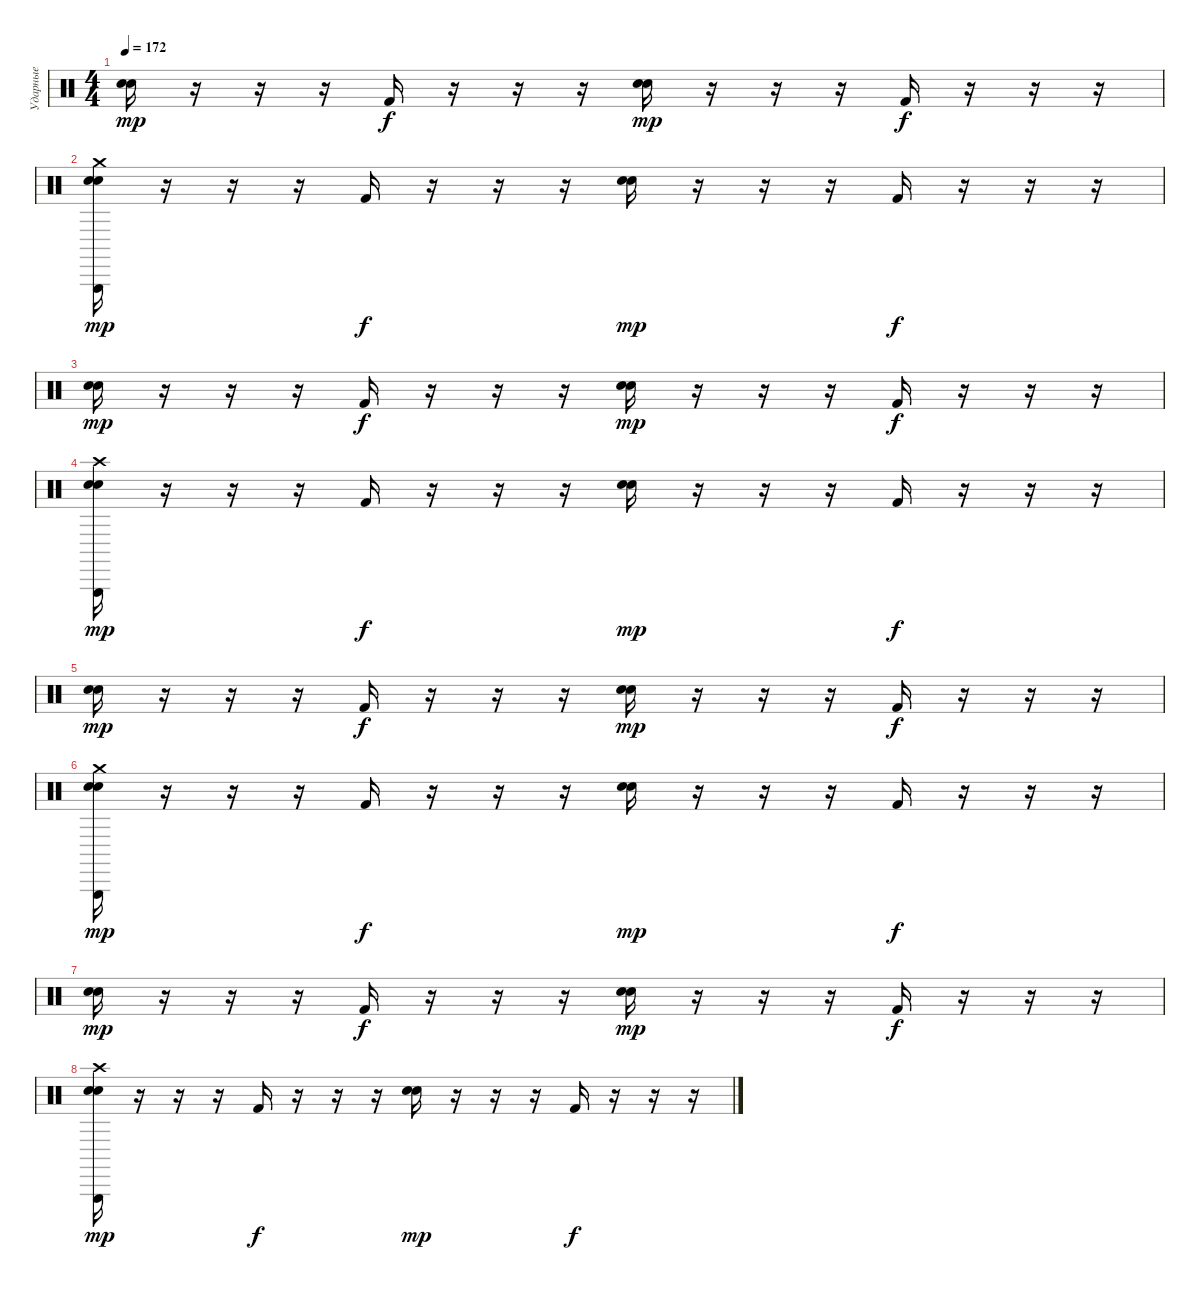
\track ("Ударные" "Ударные") {instrument percussion}
\staff {score}
\articulation defaults
\ts (4 4)
\tempo 172
\clef neutral
\ks c
("Snare (hit) 2" "Electric Snare (hit)").16{dy mp} r.16 r.16 r.16 "Kick (hit) 2".16{dy f} r.16 r.16 r.16 ("Snare (hit) 2" "Electric Snare (hit)").16{dy mp} r.16 r.16 r.16 "Kick (hit) 2".16{dy f} r.16 r.16 r.16 |
("Snare (hit) 2" "Electric Snare (hit)" "Triangle (hit)" "Crash medium (hit)").16{dy mp} r.16 r.16 r.16 "Kick (hit) 2".16{dy f} r.16 r.16 r.16 ("Snare (hit) 2" "Electric Snare (hit)").16{dy mp} r.16 r.16 r.16 "Kick (hit) 2".16{dy f} r.16 r.16 r.16 |
("Snare (hit) 2" "Electric Snare (hit)").16{dy mp} r.16 r.16 r.16 "Kick (hit) 2".16{dy f} r.16 r.16 r.16 ("Snare (hit) 2" "Electric Snare (hit)").16{dy mp} r.16 r.16 r.16 "Kick (hit) 2".16{dy f} r.16 r.16 r.16 |
("Snare (hit) 2" "Electric Snare (hit)" "Triangle (hit)" "Crash high (hit)").16{dy mp} r.16 r.16 r.16 "Kick (hit) 2".16{dy f} r.16 r.16 r.16 ("Snare (hit) 2" "Electric Snare (hit)").16{dy mp} r.16 r.16 r.16 "Kick (hit) 2".16{dy f} r.16 r.16 r.16 |
("Snare (hit) 2" "Electric Snare (hit)").16{dy mp} r.16 r.16 r.16 "Kick (hit) 2".16{dy f} r.16 r.16 r.16 ("Snare (hit) 2" "Electric Snare (hit)").16{dy mp} r.16 r.16 r.16 "Kick (hit) 2".16{dy f} r.16 r.16 r.16 |
("Snare (hit) 2" "Electric Snare (hit)" "Triangle (hit)" "Crash medium (hit)").16{dy mp} r.16 r.16 r.16 "Kick (hit) 2".16{dy f} r.16 r.16 r.16 ("Snare (hit) 2" "Electric Snare (hit)").16{dy mp} r.16 r.16 r.16 "Kick (hit) 2".16{dy f} r.16 r.16 r.16 |
("Snare (hit) 2" "Electric Snare (hit)").16{dy mp} r.16 r.16 r.16 "Kick (hit) 2".16{dy f} r.16 r.16 r.16 ("Snare (hit) 2" "Electric Snare (hit)").16{dy mp} r.16 r.16 r.16 "Kick (hit) 2".16{dy f} r.16 r.16 r.16 |
("Snare (hit) 2" "Electric Snare (hit)" "Triangle (hit)" "Crash high (hit)").16{dy mp} r.16 r.16 r.16 "Kick (hit) 2".16{dy f} r.16 r.16 r.16 ("Snare (hit) 2" "Electric Snare (hit)").16{dy mp} r.16 r.16 r.16 "Kick (hit) 2".16{dy f} r.16 r.16 r.16
